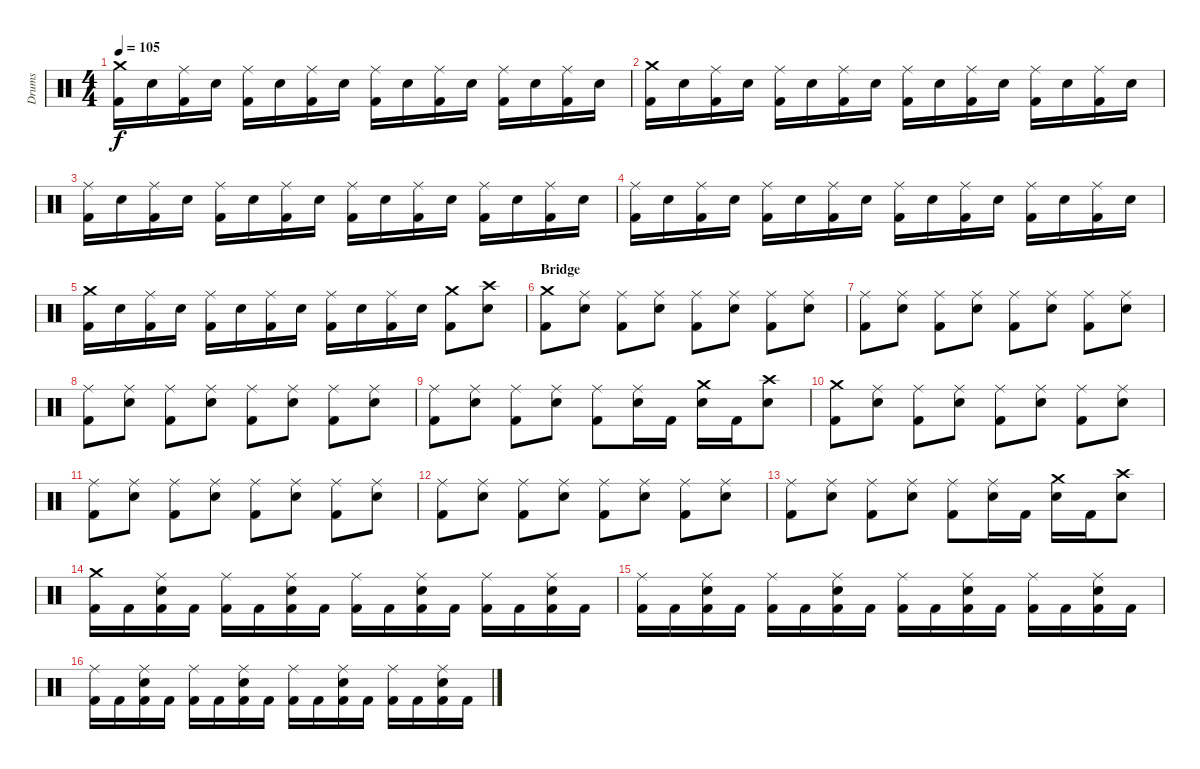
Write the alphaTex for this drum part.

\track ("Drums" "Drums") {instrument percussion}
\staff {score}
\articulation defaults
\ts (4 4)
\tempo 105
\clef neutral
\ks c
("Crash medium (hit)" "Kick (hit) 2").16{dy f} "Electric Snare (hit)".16 ("Ride (middle)" "Kick (hit) 2").16 "Electric Snare (hit)".16 ("Ride (middle)" "Kick (hit) 2").16 "Electric Snare (hit)".16 ("Ride (middle)" "Kick (hit) 2").16 "Electric Snare (hit)".16 ("Ride (middle)" "Kick (hit) 2").16 "Electric Snare (hit)".16 ("Ride (middle)" "Kick (hit) 2").16 "Electric Snare (hit)".16 ("Ride (middle)" "Kick (hit) 2").16 "Electric Snare (hit)".16 ("Ride (middle)" "Kick (hit) 2").16 "Electric Snare (hit)".16 |
("Crash medium (hit)" "Kick (hit) 2").16 "Electric Snare (hit)".16 ("Ride (middle)" "Kick (hit) 2").16 "Electric Snare (hit)".16 ("Ride (middle)" "Kick (hit) 2").16 "Electric Snare (hit)".16 ("Ride (middle)" "Kick (hit) 2").16 "Electric Snare (hit)".16 ("Ride (middle)" "Kick (hit) 2").16 "Electric Snare (hit)".16 ("Ride (middle)" "Kick (hit) 2").16 "Electric Snare (hit)".16 ("Ride (middle)" "Kick (hit) 2").16 "Electric Snare (hit)".16 ("Ride (middle)" "Kick (hit) 2").16 "Electric Snare (hit)".16 |
("Ride (middle)" "Kick (hit) 2").16 "Electric Snare (hit)".16 ("Ride (middle)" "Kick (hit) 2").16 "Electric Snare (hit)".16 ("Ride (middle)" "Kick (hit) 2").16 "Electric Snare (hit)".16 ("Ride (middle)" "Kick (hit) 2").16 "Electric Snare (hit)".16 ("Ride (middle)" "Kick (hit) 2").16 "Electric Snare (hit)".16 ("Ride (middle)" "Kick (hit) 2").16 "Electric Snare (hit)".16 ("Ride (middle)" "Kick (hit) 2").16 "Electric Snare (hit)".16 ("Ride (middle)" "Kick (hit) 2").16 "Electric Snare (hit)".16 |
("Ride (middle)" "Kick (hit) 2").16 "Electric Snare (hit)".16 ("Ride (middle)" "Kick (hit) 2").16 "Electric Snare (hit)".16 ("Ride (middle)" "Kick (hit) 2").16 "Electric Snare (hit)".16 ("Ride (middle)" "Kick (hit) 2").16 "Electric Snare (hit)".16 ("Ride (middle)" "Kick (hit) 2").16 "Electric Snare (hit)".16 ("Ride (middle)" "Kick (hit) 2").16 "Electric Snare (hit)".16 ("Ride (middle)" "Kick (hit) 2").16 "Electric Snare (hit)".16 ("Ride (middle)" "Kick (hit) 2").16 "Electric Snare (hit)".16 |
("Crash medium (hit)" "Kick (hit) 2").16 "Electric Snare (hit)".16 ("Ride (middle)" "Kick (hit) 2").16 "Electric Snare (hit)".16 ("Ride (middle)" "Kick (hit) 2").16 "Electric Snare (hit)".16 ("Ride (middle)" "Kick (hit) 2").16 "Electric Snare (hit)".16 ("Ride (middle)" "Kick (hit) 2").16 "Electric Snare (hit)".16 ("Ride (middle)" "Kick (hit) 2").16 "Electric Snare (hit)".16 ("Crash medium (hit)" "Kick (hit) 2").8 ("Crash high (hit)" "Electric Snare (hit)").8 |
\section ("" "Bridge")
("Crash medium (hit)" "Kick (hit) 2").8 ("Ride (middle)" "Electric Snare (hit)").8 ("Ride (middle)" "Kick (hit) 2").8 ("Ride (middle)" "Electric Snare (hit)").8 ("Ride (middle)" "Kick (hit) 2").8 ("Ride (middle)" "Electric Snare (hit)").8 ("Ride (middle)" "Kick (hit) 2").8 ("Ride (middle)" "Electric Snare (hit)").8 |
("Ride (middle)" "Kick (hit) 2").8 ("Ride (middle)" "Electric Snare (hit)").8 ("Ride (middle)" "Kick (hit) 2").8 ("Ride (middle)" "Electric Snare (hit)").8 ("Ride (middle)" "Kick (hit) 2").8 ("Ride (middle)" "Electric Snare (hit)").8 ("Ride (middle)" "Kick (hit) 2").8 ("Ride (middle)" "Electric Snare (hit)").8 |
("Ride (middle)" "Kick (hit) 2").8 ("Ride (middle)" "Electric Snare (hit)").8 ("Ride (middle)" "Kick (hit) 2").8 ("Ride (middle)" "Electric Snare (hit)").8 ("Ride (middle)" "Kick (hit) 2").8 ("Ride (middle)" "Electric Snare (hit)").8 ("Ride (middle)" "Kick (hit) 2").8 ("Ride (middle)" "Electric Snare (hit)").8 |
("Ride (middle)" "Kick (hit) 2").8 ("Ride (middle)" "Electric Snare (hit)").8 ("Ride (middle)" "Kick (hit) 2").8 ("Ride (middle)" "Electric Snare (hit)").8 ("Ride (middle)" "Kick (hit) 2").8 ("Ride (middle)" "Electric Snare (hit)").16 "Kick (hit) 2".16 ("Crash medium (hit)" "Electric Snare (hit)").16 "Kick (hit) 2".16 ("Crash high (hit)" "Electric Snare (hit)").8 |
("Crash medium (hit)" "Kick (hit) 2").8 ("Ride (middle)" "Electric Snare (hit)").8 ("Ride (middle)" "Kick (hit) 2").8 ("Ride (middle)" "Electric Snare (hit)").8 ("Ride (middle)" "Kick (hit) 2").8 ("Ride (middle)" "Electric Snare (hit)").8 ("Ride (middle)" "Kick (hit) 2").8 ("Ride (middle)" "Electric Snare (hit)").8 |
("Ride (middle)" "Kick (hit) 2").8 ("Ride (middle)" "Electric Snare (hit)").8 ("Ride (middle)" "Kick (hit) 2").8 ("Ride (middle)" "Electric Snare (hit)").8 ("Ride (middle)" "Kick (hit) 2").8 ("Ride (middle)" "Electric Snare (hit)").8 ("Ride (middle)" "Kick (hit) 2").8 ("Ride (middle)" "Electric Snare (hit)").8 |
("Ride (middle)" "Kick (hit) 2").8 ("Ride (middle)" "Electric Snare (hit)").8 ("Ride (middle)" "Kick (hit) 2").8 ("Ride (middle)" "Electric Snare (hit)").8 ("Ride (middle)" "Kick (hit) 2").8 ("Ride (middle)" "Electric Snare (hit)").8 ("Ride (middle)" "Kick (hit) 2").8 ("Ride (middle)" "Electric Snare (hit)").8 |
("Ride (middle)" "Kick (hit) 2").8 ("Ride (middle)" "Electric Snare (hit)").8 ("Ride (middle)" "Kick (hit) 2").8 ("Ride (middle)" "Electric Snare (hit)").8 ("Ride (middle)" "Kick (hit) 2").8 ("Ride (middle)" "Electric Snare (hit)").16 "Kick (hit) 2".16 ("Crash medium (hit)" "Electric Snare (hit)").16 "Kick (hit) 2".16 ("Crash high (hit)" "Electric Snare (hit)").8 |
\section ("" "")
("Crash medium (hit)" "Kick (hit) 2").16 "Kick (hit) 2".16 ("Ride (middle)" "Electric Snare (hit)" "Kick (hit) 2").16 "Kick (hit) 2".16 ("Ride (middle)" "Kick (hit) 2").16 "Kick (hit) 2".16 ("Ride (middle)" "Electric Snare (hit)" "Kick (hit) 2").16 "Kick (hit) 2".16 ("Ride (middle)" "Kick (hit) 2").16 "Kick (hit) 2".16 ("Ride (middle)" "Electric Snare (hit)" "Kick (hit) 2").16 "Kick (hit) 2".16 ("Ride (middle)" "Kick (hit) 2").16 "Kick (hit) 2".16 ("Ride (middle)" "Electric Snare (hit)" "Kick (hit) 2").16 "Kick (hit) 2".16 |
("Ride (middle)" "Kick (hit) 2").16 "Kick (hit) 2".16 ("Ride (middle)" "Electric Snare (hit)" "Kick (hit) 2").16 "Kick (hit) 2".16 ("Ride (middle)" "Kick (hit) 2").16 "Kick (hit) 2".16 ("Ride (middle)" "Electric Snare (hit)" "Kick (hit) 2").16 "Kick (hit) 2".16 ("Ride (middle)" "Kick (hit) 2").16 "Kick (hit) 2".16 ("Ride (middle)" "Electric Snare (hit)" "Kick (hit) 2").16 "Kick (hit) 2".16 ("Ride (middle)" "Kick (hit) 2").16 "Kick (hit) 2".16 ("Ride (middle)" "Electric Snare (hit)" "Kick (hit) 2").16 "Kick (hit) 2".16 |
("Ride (middle)" "Kick (hit) 2").16 "Kick (hit) 2".16 ("Ride (middle)" "Electric Snare (hit)" "Kick (hit) 2").16 "Kick (hit) 2".16 ("Ride (middle)" "Kick (hit) 2").16 "Kick (hit) 2".16 ("Ride (middle)" "Electric Snare (hit)" "Kick (hit) 2").16 "Kick (hit) 2".16 ("Ride (middle)" "Kick (hit) 2").16 "Kick (hit) 2".16 ("Ride (middle)" "Electric Snare (hit)" "Kick (hit) 2").16 "Kick (hit) 2".16 ("Ride (middle)" "Kick (hit) 2").16 "Kick (hit) 2".16 ("Ride (middle)" "Electric Snare (hit)" "Kick (hit) 2").16 "Kick (hit) 2".16
